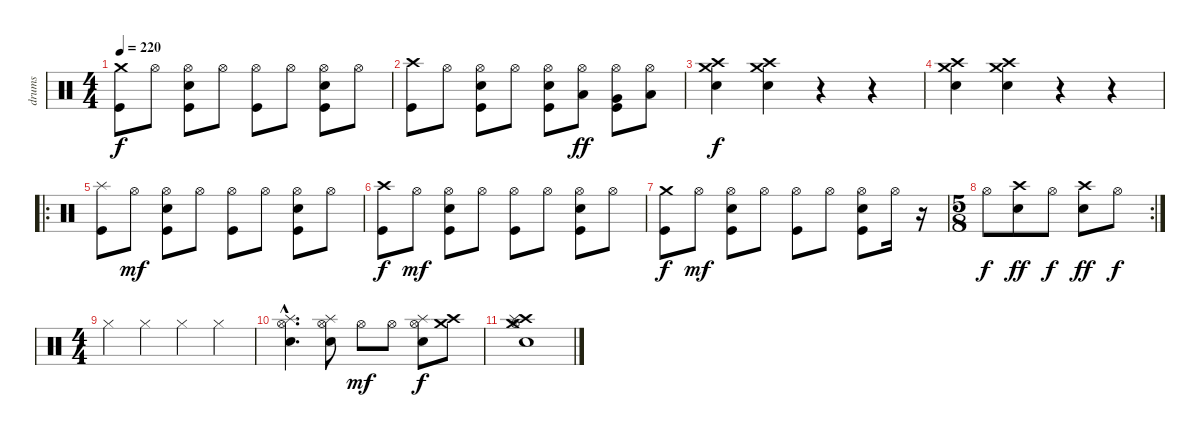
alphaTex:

\track ("drums" "drums") {instrument percussion}
\staff {score}
\articulation defaults
\ts (4 4)
\tempo 220
\clef neutral
\ks c
("Crash medium (hit)" "Kick (hit)").8{dy f} "Hi-Hat (open)".8 ("Hi-Hat (open)" "Electric Snare (hit)" "Kick (hit)").8 "Hi-Hat (open)".8 ("Hi-Hat (open)" "Kick (hit)").8 "Hi-Hat (open)".8 ("Hi-Hat (open)" "Electric Snare (hit)" "Kick (hit)").8 "Hi-Hat (open)".8 |
("Crash high (hit)" "Kick (hit)").8 "Hi-Hat (open)".8 ("Hi-Hat (open)" "Electric Snare (hit)" "Kick (hit)").8 "Hi-Hat (open)".8 ("Hi-Hat (open)" "Electric Snare (hit)" "Kick (hit)").8 ("Hi-Hat (open)" "Low Floor Tom (hit)").8{dy ff} ("Hi-Hat (open)" "Very Low Tom (hit)" "Kick (hit)").8 ("Hi-Hat (open)" "Low Tom (hit)").8 |
("Crash medium (hit)" "Crash high (hit)" "Electric Snare (hit)").4{dy f} ("Crash medium (hit)" "Crash high (hit)" "Electric Snare (hit)").4 r.4 r.4 |
("Crash medium (hit)" "Crash high (hit)" "Electric Snare (hit)").4 ("Crash medium (hit)" "Crash high (hit)" "Electric Snare (hit)").4 r.4 r.4 |
\ro
("Splash (hit)" "Kick (hit)").8 "Hi-Hat (open)".8{dy mf} ("Hi-Hat (open)" "Snare (hit) 2" "Kick (hit)").8 "Hi-Hat (open)".8 ("Hi-Hat (open)" "Kick (hit)").8 "Hi-Hat (open)".8 ("Hi-Hat (open)" "Snare (hit) 2" "Kick (hit)").8 "Hi-Hat (open)".8 |
("Crash high (hit)" "Kick (hit)").8{dy f} "Hi-Hat (open)".8{dy mf} ("Hi-Hat (open)" "Snare (hit) 2" "Kick (hit)").8 "Hi-Hat (open)".8 ("Hi-Hat (open)" "Kick (hit)").8 "Hi-Hat (open)".8 ("Hi-Hat (open)" "Snare (hit) 2" "Kick (hit)").8 "Hi-Hat (open)".8 |
("Crash medium (hit)" "Kick (hit)").8{dy f} "Hi-Hat (open)".8{dy mf} ("Hi-Hat (open)" "Snare (hit) 2" "Kick (hit)").8 "Hi-Hat (open)".8 ("Hi-Hat (open)" "Kick (hit)").8 "Hi-Hat (open)".8 ("Hi-Hat (open)" "Snare (hit) 2" "Kick (hit)").8 "Hi-Hat (open)".16 r.16 |
\rc 2
\ts (5 8)
"Hi-Hat (open)".8{dy f} ("Crash high (hit)" "Snare (hit) 2").8{dy ff} "Hi-Hat (open)".8{dy f} ("Crash high (hit)" "Snare (hit) 2").8{dy ff} "Hi-Hat (open)".8{dy f} |
\ts (4 4)
"Hi-Hat (closed)".4 "Hi-Hat (closed)".4 "Hi-Hat (closed)".4 "Hi-Hat (closed)".4 |
("Splash (hit)"{hac} "Hi-Hat (open)"{hac} "Snare (hit) 2"{hac}).4{d} ("Splash (hit)" "Hi-Hat (open)" "Snare (hit) 2").8 "Hi-Hat (open)".8{dy mf} "Hi-Hat (open)".8 ("Splash (hit)" "Hi-Hat (open)" "Snare (hit) 2").8{dy f} ("Crash medium (hit)" "Crash high (hit)").8 |
("Crash high (hit)" "Splash (hit)" "Crash medium (hit)" "Hi-Hat (open)" "Electric Snare (hit)").1
